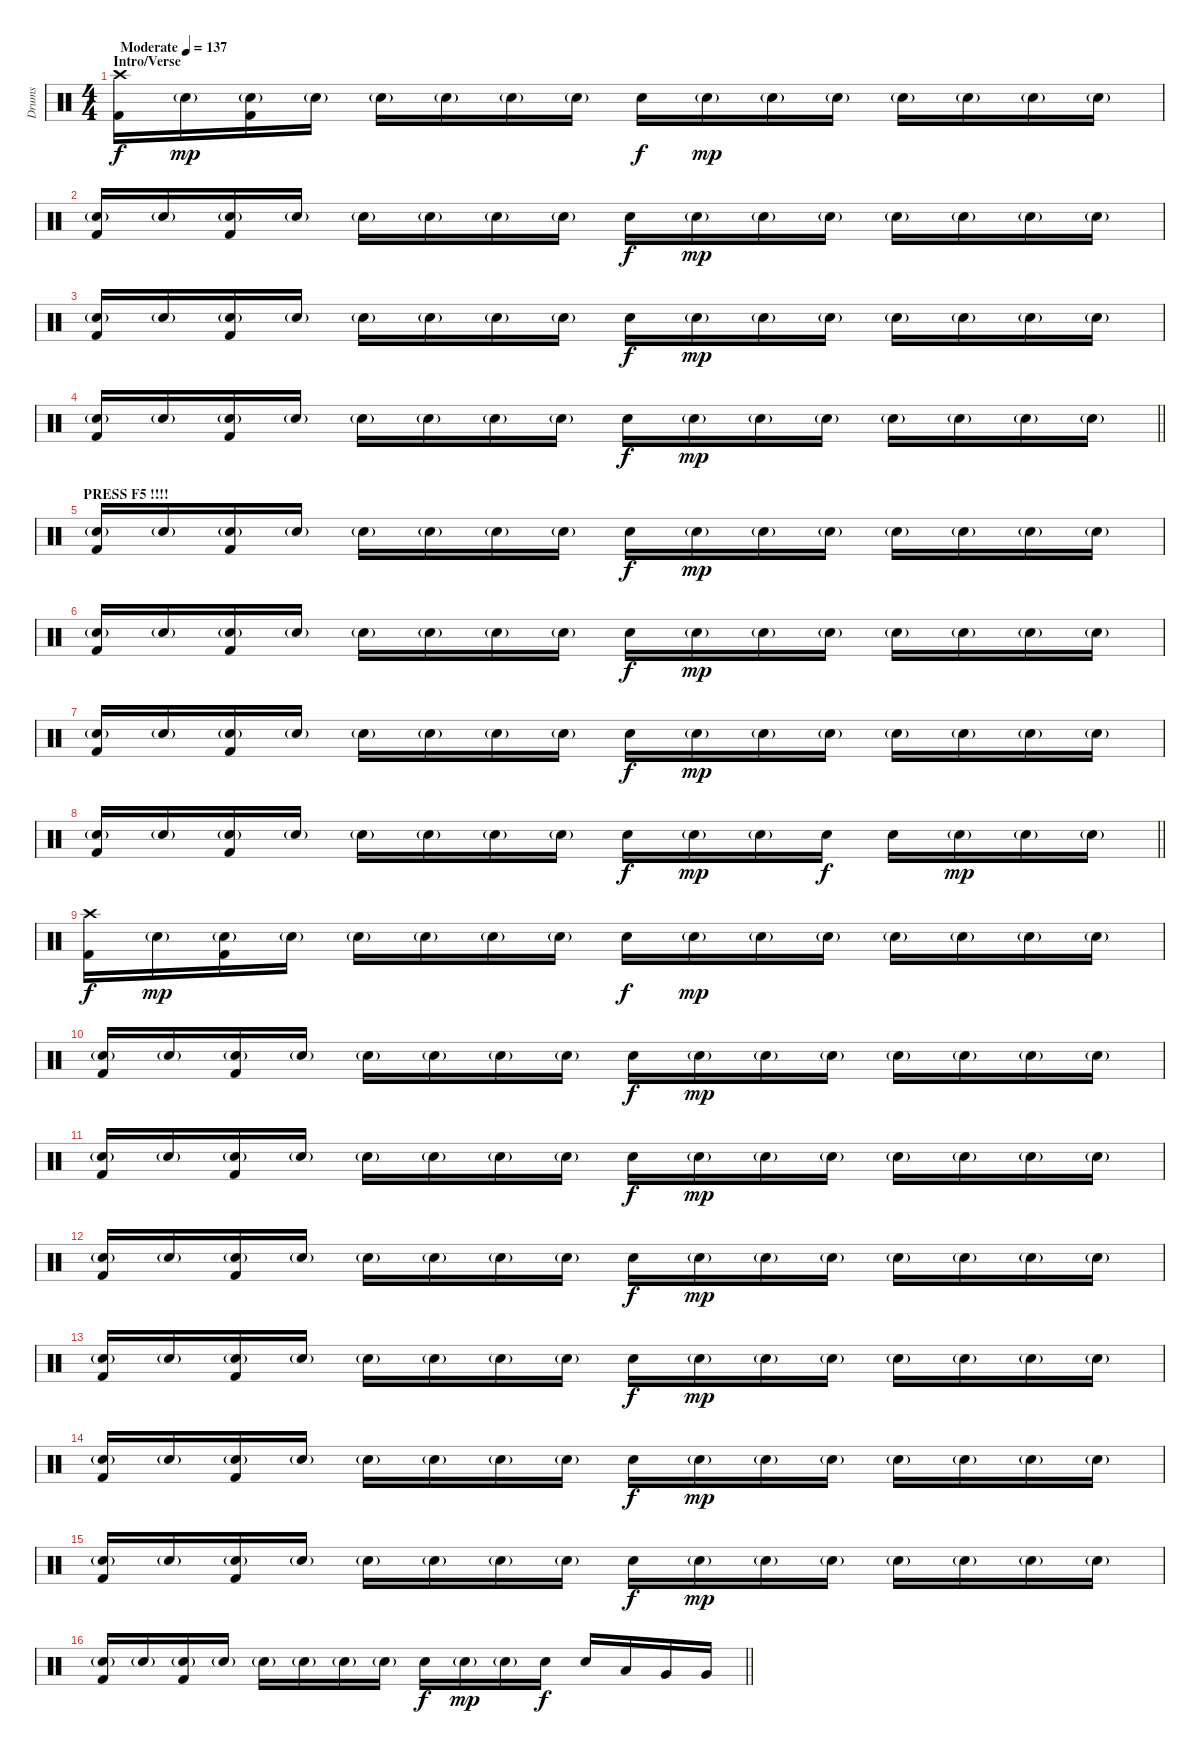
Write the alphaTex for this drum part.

\track ("Drums" "Drums") {instrument percussion}
\staff {score}
\articulation defaults
\ts (4 4)
\section ("" "Intro/Verse")
\tempo (137 "Moderate")
\clef neutral
\ks c
("Crash high (hit)" "Kick (hit) 2").16{dy f} "Electric Snare (hit)"{g}.16{dy mp} ("Electric Snare (hit)"{g} "Kick (hit) 2").16 "Electric Snare (hit)"{g}.16 "Electric Snare (hit)"{g}.16 "Electric Snare (hit)"{g}.16 "Electric Snare (hit)"{g}.16 "Electric Snare (hit)"{g}.16 "Electric Snare (hit)".16{dy f} "Electric Snare (hit)"{g}.16{dy mp} "Electric Snare (hit)"{g}.16 "Electric Snare (hit)"{g}.16 "Electric Snare (hit)"{g}.16 "Electric Snare (hit)"{g}.16 "Electric Snare (hit)"{g}.16 "Electric Snare (hit)"{g}.16 |
("Electric Snare (hit)"{g} "Kick (hit) 2").16 "Electric Snare (hit)"{g}.16 ("Electric Snare (hit)"{g} "Kick (hit) 2").16 "Electric Snare (hit)"{g}.16 "Electric Snare (hit)"{g}.16 "Electric Snare (hit)"{g}.16 "Electric Snare (hit)"{g}.16 "Electric Snare (hit)"{g}.16 "Electric Snare (hit)".16{dy f} "Electric Snare (hit)"{g}.16{dy mp} "Electric Snare (hit)"{g}.16 "Electric Snare (hit)"{g}.16 "Electric Snare (hit)"{g}.16 "Electric Snare (hit)"{g}.16 "Electric Snare (hit)"{g}.16 "Electric Snare (hit)"{g}.16 |
("Electric Snare (hit)"{g} "Kick (hit) 2").16 "Electric Snare (hit)"{g}.16 ("Electric Snare (hit)"{g} "Kick (hit) 2").16 "Electric Snare (hit)"{g}.16 "Electric Snare (hit)"{g}.16 "Electric Snare (hit)"{g}.16 "Electric Snare (hit)"{g}.16 "Electric Snare (hit)"{g}.16 "Electric Snare (hit)".16{dy f} "Electric Snare (hit)"{g}.16{dy mp} "Electric Snare (hit)"{g}.16 "Electric Snare (hit)"{g}.16 "Electric Snare (hit)"{g}.16 "Electric Snare (hit)"{g}.16 "Electric Snare (hit)"{g}.16 "Electric Snare (hit)"{g}.16 |
\barLineRight lightlight
("Electric Snare (hit)"{g} "Kick (hit) 2").16 "Electric Snare (hit)"{g}.16 ("Electric Snare (hit)"{g} "Kick (hit) 2").16 "Electric Snare (hit)"{g}.16 "Electric Snare (hit)"{g}.16 "Electric Snare (hit)"{g}.16 "Electric Snare (hit)"{g}.16 "Electric Snare (hit)"{g}.16 "Electric Snare (hit)".16{dy f} "Electric Snare (hit)"{g}.16{dy mp} "Electric Snare (hit)"{g}.16 "Electric Snare (hit)"{g}.16 "Electric Snare (hit)"{g}.16 "Electric Snare (hit)"{g}.16 "Electric Snare (hit)"{g}.16 "Electric Snare (hit)"{g}.16 |
\section ("" "PRESS F5 !!!!")
("Electric Snare (hit)"{g} "Kick (hit) 2").16 "Electric Snare (hit)"{g}.16 ("Electric Snare (hit)"{g} "Kick (hit) 2").16 "Electric Snare (hit)"{g}.16 "Electric Snare (hit)"{g}.16 "Electric Snare (hit)"{g}.16 "Electric Snare (hit)"{g}.16 "Electric Snare (hit)"{g}.16 "Electric Snare (hit)".16{dy f} "Electric Snare (hit)"{g}.16{dy mp} "Electric Snare (hit)"{g}.16 "Electric Snare (hit)"{g}.16 "Electric Snare (hit)"{g}.16 "Electric Snare (hit)"{g}.16 "Electric Snare (hit)"{g}.16 "Electric Snare (hit)"{g}.16 |
("Electric Snare (hit)"{g} "Kick (hit) 2").16 "Electric Snare (hit)"{g}.16 ("Electric Snare (hit)"{g} "Kick (hit) 2").16 "Electric Snare (hit)"{g}.16 "Electric Snare (hit)"{g}.16 "Electric Snare (hit)"{g}.16 "Electric Snare (hit)"{g}.16 "Electric Snare (hit)"{g}.16 "Electric Snare (hit)".16{dy f} "Electric Snare (hit)"{g}.16{dy mp} "Electric Snare (hit)"{g}.16 "Electric Snare (hit)"{g}.16 "Electric Snare (hit)"{g}.16 "Electric Snare (hit)"{g}.16 "Electric Snare (hit)"{g}.16 "Electric Snare (hit)"{g}.16 |
("Electric Snare (hit)"{g} "Kick (hit) 2").16 "Electric Snare (hit)"{g}.16 ("Electric Snare (hit)"{g} "Kick (hit) 2").16 "Electric Snare (hit)"{g}.16 "Electric Snare (hit)"{g}.16 "Electric Snare (hit)"{g}.16 "Electric Snare (hit)"{g}.16 "Electric Snare (hit)"{g}.16 "Electric Snare (hit)".16{dy f} "Electric Snare (hit)"{g}.16{dy mp} "Electric Snare (hit)"{g}.16 "Electric Snare (hit)"{g}.16 "Electric Snare (hit)"{g}.16 "Electric Snare (hit)"{g}.16 "Electric Snare (hit)"{g}.16 "Electric Snare (hit)"{g}.16 |
\barLineRight lightlight
("Electric Snare (hit)"{g} "Kick (hit) 2").16 "Electric Snare (hit)"{g}.16 ("Electric Snare (hit)"{g} "Kick (hit) 2").16 "Electric Snare (hit)"{g}.16 "Electric Snare (hit)"{g}.16 "Electric Snare (hit)"{g}.16 "Electric Snare (hit)"{g}.16 "Electric Snare (hit)"{g}.16 "Electric Snare (hit)".16{dy f} "Electric Snare (hit)"{g}.16{dy mp} "Electric Snare (hit)"{g}.16 "Electric Snare (hit)".16{dy f} "Electric Snare (hit)".16 "Electric Snare (hit)"{g}.16{dy mp} "Electric Snare (hit)"{g}.16 "Electric Snare (hit)"{g}.16 |
\section ("" "")
("Crash high (hit)" "Kick (hit) 2").16{dy f} "Electric Snare (hit)"{g}.16{dy mp} ("Electric Snare (hit)"{g} "Kick (hit) 2").16 "Electric Snare (hit)"{g}.16 "Electric Snare (hit)"{g}.16 "Electric Snare (hit)"{g}.16 "Electric Snare (hit)"{g}.16 "Electric Snare (hit)"{g}.16 "Electric Snare (hit)".16{dy f} "Electric Snare (hit)"{g}.16{dy mp} "Electric Snare (hit)"{g}.16 "Electric Snare (hit)"{g}.16 "Electric Snare (hit)"{g}.16 "Electric Snare (hit)"{g}.16 "Electric Snare (hit)"{g}.16 "Electric Snare (hit)"{g}.16 |
("Electric Snare (hit)"{g} "Kick (hit) 2").16 "Electric Snare (hit)"{g}.16 ("Electric Snare (hit)"{g} "Kick (hit) 2").16 "Electric Snare (hit)"{g}.16 "Electric Snare (hit)"{g}.16 "Electric Snare (hit)"{g}.16 "Electric Snare (hit)"{g}.16 "Electric Snare (hit)"{g}.16 "Electric Snare (hit)".16{dy f} "Electric Snare (hit)"{g}.16{dy mp} "Electric Snare (hit)"{g}.16 "Electric Snare (hit)"{g}.16 "Electric Snare (hit)"{g}.16 "Electric Snare (hit)"{g}.16 "Electric Snare (hit)"{g}.16 "Electric Snare (hit)"{g}.16 |
("Electric Snare (hit)"{g} "Kick (hit) 2").16 "Electric Snare (hit)"{g}.16 ("Electric Snare (hit)"{g} "Kick (hit) 2").16 "Electric Snare (hit)"{g}.16 "Electric Snare (hit)"{g}.16 "Electric Snare (hit)"{g}.16 "Electric Snare (hit)"{g}.16 "Electric Snare (hit)"{g}.16 "Electric Snare (hit)".16{dy f} "Electric Snare (hit)"{g}.16{dy mp} "Electric Snare (hit)"{g}.16 "Electric Snare (hit)"{g}.16 "Electric Snare (hit)"{g}.16 "Electric Snare (hit)"{g}.16 "Electric Snare (hit)"{g}.16 "Electric Snare (hit)"{g}.16 |
("Electric Snare (hit)"{g} "Kick (hit) 2").16 "Electric Snare (hit)"{g}.16 ("Electric Snare (hit)"{g} "Kick (hit) 2").16 "Electric Snare (hit)"{g}.16 "Electric Snare (hit)"{g}.16 "Electric Snare (hit)"{g}.16 "Electric Snare (hit)"{g}.16 "Electric Snare (hit)"{g}.16 "Electric Snare (hit)".16{dy f} "Electric Snare (hit)"{g}.16{dy mp} "Electric Snare (hit)"{g}.16 "Electric Snare (hit)"{g}.16 "Electric Snare (hit)"{g}.16 "Electric Snare (hit)"{g}.16 "Electric Snare (hit)"{g}.16 "Electric Snare (hit)"{g}.16 |
("Electric Snare (hit)"{g} "Kick (hit) 2").16 "Electric Snare (hit)"{g}.16 ("Electric Snare (hit)"{g} "Kick (hit) 2").16 "Electric Snare (hit)"{g}.16 "Electric Snare (hit)"{g}.16 "Electric Snare (hit)"{g}.16 "Electric Snare (hit)"{g}.16 "Electric Snare (hit)"{g}.16 "Electric Snare (hit)".16{dy f} "Electric Snare (hit)"{g}.16{dy mp} "Electric Snare (hit)"{g}.16 "Electric Snare (hit)"{g}.16 "Electric Snare (hit)"{g}.16 "Electric Snare (hit)"{g}.16 "Electric Snare (hit)"{g}.16 "Electric Snare (hit)"{g}.16 |
("Electric Snare (hit)"{g} "Kick (hit) 2").16 "Electric Snare (hit)"{g}.16 ("Electric Snare (hit)"{g} "Kick (hit) 2").16 "Electric Snare (hit)"{g}.16 "Electric Snare (hit)"{g}.16 "Electric Snare (hit)"{g}.16 "Electric Snare (hit)"{g}.16 "Electric Snare (hit)"{g}.16 "Electric Snare (hit)".16{dy f} "Electric Snare (hit)"{g}.16{dy mp} "Electric Snare (hit)"{g}.16 "Electric Snare (hit)"{g}.16 "Electric Snare (hit)"{g}.16 "Electric Snare (hit)"{g}.16 "Electric Snare (hit)"{g}.16 "Electric Snare (hit)"{g}.16 |
("Electric Snare (hit)"{g} "Kick (hit) 2").16 "Electric Snare (hit)"{g}.16 ("Electric Snare (hit)"{g} "Kick (hit) 2").16 "Electric Snare (hit)"{g}.16 "Electric Snare (hit)"{g}.16 "Electric Snare (hit)"{g}.16 "Electric Snare (hit)"{g}.16 "Electric Snare (hit)"{g}.16 "Electric Snare (hit)".16{dy f} "Electric Snare (hit)"{g}.16{dy mp} "Electric Snare (hit)"{g}.16 "Electric Snare (hit)"{g}.16 "Electric Snare (hit)"{g}.16 "Electric Snare (hit)"{g}.16 "Electric Snare (hit)"{g}.16 "Electric Snare (hit)"{g}.16 |
\barLineRight lightlight
("Electric Snare (hit)"{g} "Kick (hit) 2").16 "Electric Snare (hit)"{g}.16 ("Electric Snare (hit)"{g} "Kick (hit) 2").16 "Electric Snare (hit)"{g}.16 "Electric Snare (hit)"{g}.16 "Electric Snare (hit)"{g}.16 "Electric Snare (hit)"{g}.16 "Electric Snare (hit)"{g}.16 "Electric Snare (hit)".16{dy f} "Electric Snare (hit)"{g}.16{dy mp} "Electric Snare (hit)"{g}.16 "Electric Snare (hit)".16{dy f} "Electric Snare (hit)".16 "Low Tom (hit)".16 "Very Low Tom (hit)".16 "Very Low Tom (hit)".16
